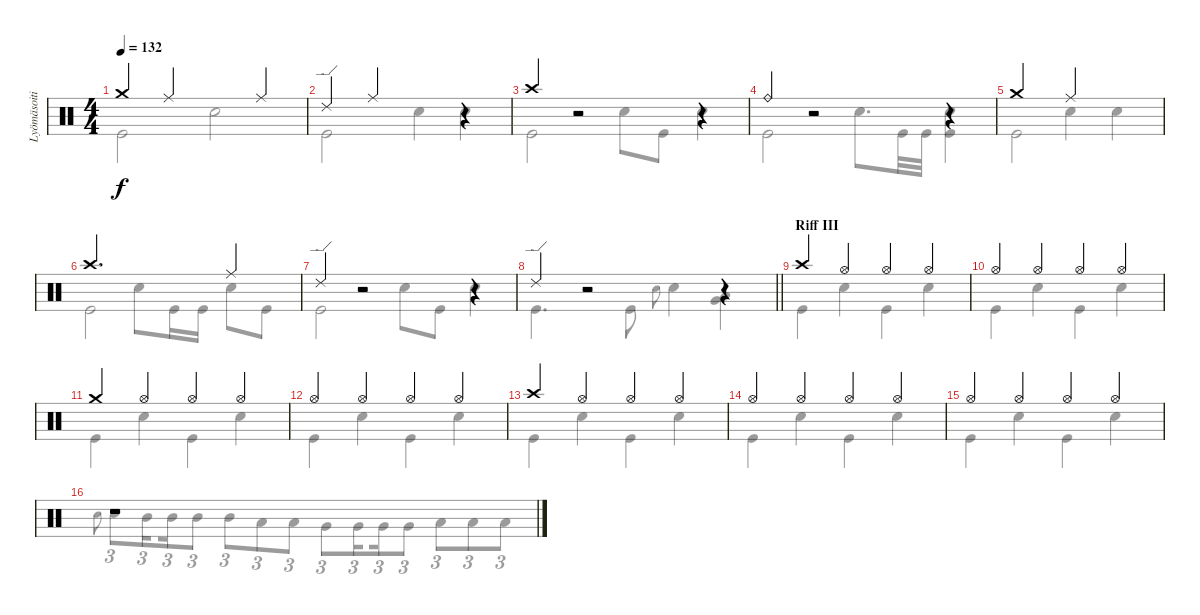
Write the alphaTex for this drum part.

\track ("Lyömäsoitin" "Lyömäsoiti") {instrument percussion}
\staff {score}
\articulation defaults
\voice
\ts (4 4)
\tempo 132
\clef neutral
\ks c "Crash medium (hit)".4{dy f} "Ride (middle)".2 "Ride (middle)".4
|
"Ride (edge) 2".4 "Ride (middle)".2 r.4 |
"Crash high (hit)".4 r.2 r.4 |
"Ride (bell)".4 r.2 r.4 |
"Crash medium (hit)".2 "Ride (middle)".2 |
"Crash high (hit)".2{d} "Ride (middle)".4 |
"Ride (edge) 2".4 r.2 r.4 |
\barLineRight lightlight "Ride (edge) 2".4
r.2 r.4 |
\section ("" "Riff III")
"Crash high (hit)".4 "Hi-Hat (open)".4 "Hi-Hat (open)".4 "Hi-Hat (open)".4 |
"Hi-Hat (open)".4 "Hi-Hat (open)".4 "Hi-Hat (open)".4 "Hi-Hat (open)".4 |
"Crash medium (hit)".4 "Hi-Hat (open)".4 "Hi-Hat (open)".4 "Hi-Hat (open)".4 |
"Hi-Hat (open)".4 "Hi-Hat (open)".4 "Hi-Hat (open)".4 "Hi-Hat (open)".4 |
"Crash high (hit)".4 "Hi-Hat (open)".4 "Hi-Hat (open)".4 "Hi-Hat (open)".4 |
"Hi-Hat (open)".4 "Hi-Hat (open)".4 "Hi-Hat (open)".4 "Hi-Hat (open)".4 |
"Hi-Hat (open)".4 "Hi-Hat (open)".4 "Hi-Hat (open)".4 "Hi-Hat (open)".4 |
r.1
\voice
\clef neutral
\ottava regular
\simile none
\ks c "Kick (hit)".2{dy f} "Snare (hit) 2".2
|
"Kick (hit)".2 "Snare (hit) 2".4 "Snare (hit) 2".4 |
"Kick (hit)".2 "Snare (hit) 2".8 "Kick (hit)".8 "Snare (hit) 2".4 |
"Kick (hit)".2 "Snare (hit) 2".8{d} "Kick (hit)".32 "Kick (hit)".32 ("Snare (hit) 2" "Kick (hit)").4 |
"Kick (hit)".2 "Snare (hit) 2".4 "Snare (hit) 2".4 |
"Kick (hit)".2 "Snare (hit) 2".8 "Kick (hit)".16 "Kick (hit)".16 "Snare (hit) 2".8 "Kick (hit)".8 |
"Kick (hit)".2 "Snare (hit) 2".8 "Kick (hit)".8 "Snare (hit) 2".4 |
\barLineRight lightlight "Kick (hit)".4{d} "Kick (hit)".8 "Snare (hit) 2"{h}.8{gr onbeat} "Snare (hit) 2".4
("Low Tom (hit)" "Very Low Tom (hit)").4 |
"Kick (hit)".4 "Snare (hit) 2".4 "Kick (hit)".4 "Snare (hit) 2".4 |
"Kick (hit)".4 "Snare (hit) 2".4 "Kick (hit)".4 "Snare (hit) 2".4 |
"Kick (hit)".4 "Snare (hit) 2".4 "Kick (hit)".4 "Snare (hit) 2".4 |
"Kick (hit)".4 "Snare (hit) 2".4 "Kick (hit)".4 "Snare (hit) 2".4 |
"Kick (hit)".4 "Snare (hit) 2".4 "Kick (hit)".4 "Snare (hit) 2".4 |
"Kick (hit)".4 "Snare (hit) 2".4 "Kick (hit)".4 "Snare (hit) 2".4 |
"Kick (hit)".4 "Snare (hit) 2".4 "Kick (hit)".4 "Snare (hit) 2".4 |
"Snare (hit) 2"{h}.8{gr onbeat} "Snare (hit) 2".8{tu (3 2)} "Mid Tom (hit)".16{tu (3 2) beam splitsecondary} "Mid Tom (hit)".16{tu (3 2)} "Mid Tom (hit)".8{tu (3 2)} "Mid Tom (hit)".8{tu (3 2)} "Low Tom (hit)".8{tu (3 2)} "Low Tom (hit)".8{tu (3 2)} "Very Low Tom (hit)".8{tu (3 2)} "Very Low Tom (hit)".16{tu (3 2) beam splitsecondary} "Very Low Tom (hit)".16{tu (3 2)} "Very Low Tom (hit)".8{tu (3 2)} "Low Floor Tom (hit)".8{tu (3 2)} "Low Floor Tom (hit)".8{tu (3 2)} "Low Floor Tom (hit)".8{tu (3 2)}
